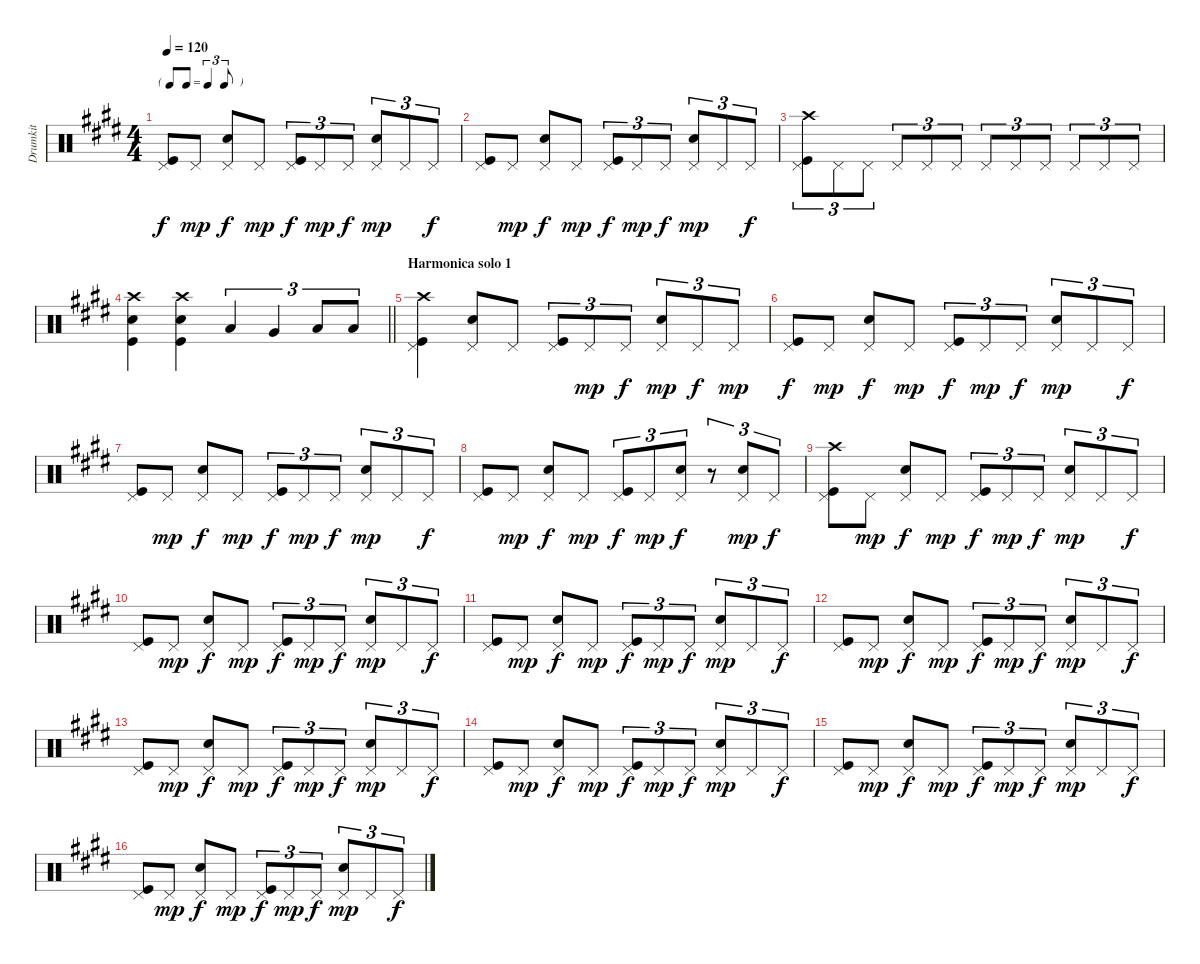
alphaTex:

\track ("Drumkit" "Drumkit") {instrument percussion}
\staff {score}
\articulation defaults
\ts (4 4)
\tf triplet8th
\tempo 120
\clef neutral
\ks e
("Pedal Hi-Hat (hit)" "Kick (hit)").8{dy f} "Pedal Hi-Hat (hit)".8{dy mp} ("Pedal Hi-Hat (hit)" "Snare (hit) 2").8{dy f} "Pedal Hi-Hat (hit)".8{dy mp} ("Pedal Hi-Hat (hit)" "Kick (hit)").8{tu (3 2) dy f} "Pedal Hi-Hat (hit)".8{tu (3 2) dy mp} "Pedal Hi-Hat (hit)".8{tu (3 2) dy f} ("Pedal Hi-Hat (hit)" "Snare (hit) 2").8{tu (3 2) dy mp} "Pedal Hi-Hat (hit)".8{tu (3 2)} "Pedal Hi-Hat (hit)".8{tu (3 2) dy f} |
("Pedal Hi-Hat (hit)" "Kick (hit)").8 "Pedal Hi-Hat (hit)".8{dy mp} ("Pedal Hi-Hat (hit)" "Snare (hit) 2").8{dy f} "Pedal Hi-Hat (hit)".8{dy mp} ("Pedal Hi-Hat (hit)" "Kick (hit)").8{tu (3 2) dy f} "Pedal Hi-Hat (hit)".8{tu (3 2) dy mp} "Pedal Hi-Hat (hit)".8{tu (3 2) dy f} ("Pedal Hi-Hat (hit)" "Snare (hit) 2").8{tu (3 2) dy mp} "Pedal Hi-Hat (hit)".8{tu (3 2)} "Pedal Hi-Hat (hit)".8{tu (3 2) dy f} |
("Crash high (hit)" "Pedal Hi-Hat (hit)" "Kick (hit)").8{tu (3 2)} "Pedal Hi-Hat (hit)".8{tu (3 2)} "Pedal Hi-Hat (hit)".8{tu (3 2)} "Pedal Hi-Hat (hit)".8{tu (3 2)} "Pedal Hi-Hat (hit)".8{tu (3 2)} "Pedal Hi-Hat (hit)".8{tu (3 2)} "Pedal Hi-Hat (hit)".8{tu (3 2)} "Pedal Hi-Hat (hit)".8{tu (3 2)} "Pedal Hi-Hat (hit)".8{tu (3 2)} "Pedal Hi-Hat (hit)".8{tu (3 2)} "Pedal Hi-Hat (hit)".8{tu (3 2)} "Pedal Hi-Hat (hit)".8{tu (3 2)} |
\barLineRight lightlight
("Crash high (hit)" "Snare (hit) 2" "Kick (hit)").4 ("Crash high (hit)" "Snare (hit) 2" "Kick (hit)").4 "Low Tom (hit)".4{tu (3 2)} "Very Low Tom (hit)".4{tu (3 2)} "Low Floor Tom (hit)".8{tu (3 2)} "Low Floor Tom (hit)".8{tu (3 2)} |
\section ("" "Harmonica solo 1")
("Crash high (hit)" "Pedal Hi-Hat (hit)" "Kick (hit)").4 ("Pedal Hi-Hat (hit)" "Snare (hit) 2").8 "Pedal Hi-Hat (hit)".8 ("Pedal Hi-Hat (hit)" "Kick (hit)").8{tu (3 2)} "Pedal Hi-Hat (hit)".8{tu (3 2) dy mp} "Pedal Hi-Hat (hit)".8{tu (3 2) dy f} ("Pedal Hi-Hat (hit)" "Snare (hit) 2").8{tu (3 2) dy mp} "Pedal Hi-Hat (hit)".8{tu (3 2) dy f} "Pedal Hi-Hat (hit)".8{tu (3 2) dy mp} |
("Pedal Hi-Hat (hit)" "Kick (hit)").8{dy f} "Pedal Hi-Hat (hit)".8{dy mp} ("Pedal Hi-Hat (hit)" "Snare (hit) 2").8{dy f} "Pedal Hi-Hat (hit)".8{dy mp} ("Pedal Hi-Hat (hit)" "Kick (hit)").8{tu (3 2) dy f} "Pedal Hi-Hat (hit)".8{tu (3 2) dy mp} "Pedal Hi-Hat (hit)".8{tu (3 2) dy f} ("Pedal Hi-Hat (hit)" "Snare (hit) 2").8{tu (3 2) dy mp} "Pedal Hi-Hat (hit)".8{tu (3 2)} "Pedal Hi-Hat (hit)".8{tu (3 2) dy f} |
("Pedal Hi-Hat (hit)" "Kick (hit)").8 "Pedal Hi-Hat (hit)".8{dy mp} ("Pedal Hi-Hat (hit)" "Snare (hit) 2").8{dy f} "Pedal Hi-Hat (hit)".8{dy mp} ("Pedal Hi-Hat (hit)" "Kick (hit)").8{tu (3 2) dy f} "Pedal Hi-Hat (hit)".8{tu (3 2) dy mp} "Pedal Hi-Hat (hit)".8{tu (3 2) dy f} ("Pedal Hi-Hat (hit)" "Snare (hit) 2").8{tu (3 2) dy mp} "Pedal Hi-Hat (hit)".8{tu (3 2)} "Pedal Hi-Hat (hit)".8{tu (3 2) dy f} |
("Pedal Hi-Hat (hit)" "Kick (hit)").8 "Pedal Hi-Hat (hit)".8{dy mp} ("Pedal Hi-Hat (hit)" "Snare (hit) 2").8{dy f} "Pedal Hi-Hat (hit)".8{dy mp} ("Pedal Hi-Hat (hit)" "Kick (hit)").8{tu (3 2) dy f} "Pedal Hi-Hat (hit)".8{tu (3 2) dy mp} ("Pedal Hi-Hat (hit)" "Snare (hit) 2").8{tu (3 2) dy f} r.8{tu (3 2)} ("Pedal Hi-Hat (hit)" "Snare (hit) 2").8{tu (3 2) dy mp} "Pedal Hi-Hat (hit)".8{tu (3 2) dy f} |
("Crash high (hit)" "Pedal Hi-Hat (hit)" "Kick (hit)").8 "Pedal Hi-Hat (hit)".8{dy mp} ("Pedal Hi-Hat (hit)" "Snare (hit) 2").8{dy f} "Pedal Hi-Hat (hit)".8{dy mp} ("Pedal Hi-Hat (hit)" "Kick (hit)").8{tu (3 2) dy f} "Pedal Hi-Hat (hit)".8{tu (3 2) dy mp} "Pedal Hi-Hat (hit)".8{tu (3 2) dy f} ("Pedal Hi-Hat (hit)" "Snare (hit) 2").8{tu (3 2) dy mp} "Pedal Hi-Hat (hit)".8{tu (3 2)} "Pedal Hi-Hat (hit)".8{tu (3 2) dy f} |
("Pedal Hi-Hat (hit)" "Kick (hit)").8 "Pedal Hi-Hat (hit)".8{dy mp} ("Pedal Hi-Hat (hit)" "Snare (hit) 2").8{dy f} "Pedal Hi-Hat (hit)".8{dy mp} ("Pedal Hi-Hat (hit)" "Kick (hit)").8{tu (3 2) dy f} "Pedal Hi-Hat (hit)".8{tu (3 2) dy mp} "Pedal Hi-Hat (hit)".8{tu (3 2) dy f} ("Pedal Hi-Hat (hit)" "Snare (hit) 2").8{tu (3 2) dy mp} "Pedal Hi-Hat (hit)".8{tu (3 2)} "Pedal Hi-Hat (hit)".8{tu (3 2) dy f} |
("Pedal Hi-Hat (hit)" "Kick (hit)").8 "Pedal Hi-Hat (hit)".8{dy mp} ("Pedal Hi-Hat (hit)" "Snare (hit) 2").8{dy f} "Pedal Hi-Hat (hit)".8{dy mp} ("Pedal Hi-Hat (hit)" "Kick (hit)").8{tu (3 2) dy f} "Pedal Hi-Hat (hit)".8{tu (3 2) dy mp} "Pedal Hi-Hat (hit)".8{tu (3 2) dy f} ("Pedal Hi-Hat (hit)" "Snare (hit) 2").8{tu (3 2) dy mp} "Pedal Hi-Hat (hit)".8{tu (3 2)} "Pedal Hi-Hat (hit)".8{tu (3 2) dy f} |
("Pedal Hi-Hat (hit)" "Kick (hit)").8 "Pedal Hi-Hat (hit)".8{dy mp} ("Pedal Hi-Hat (hit)" "Snare (hit) 2").8{dy f} "Pedal Hi-Hat (hit)".8{dy mp} ("Pedal Hi-Hat (hit)" "Kick (hit)").8{tu (3 2) dy f} "Pedal Hi-Hat (hit)".8{tu (3 2) dy mp} "Pedal Hi-Hat (hit)".8{tu (3 2) dy f} ("Pedal Hi-Hat (hit)" "Snare (hit) 2").8{tu (3 2) dy mp} "Pedal Hi-Hat (hit)".8{tu (3 2)} "Pedal Hi-Hat (hit)".8{tu (3 2) dy f} |
("Pedal Hi-Hat (hit)" "Kick (hit)").8 "Pedal Hi-Hat (hit)".8{dy mp} ("Pedal Hi-Hat (hit)" "Snare (hit) 2").8{dy f} "Pedal Hi-Hat (hit)".8{dy mp} ("Pedal Hi-Hat (hit)" "Kick (hit)").8{tu (3 2) dy f} "Pedal Hi-Hat (hit)".8{tu (3 2) dy mp} "Pedal Hi-Hat (hit)".8{tu (3 2) dy f} ("Pedal Hi-Hat (hit)" "Snare (hit) 2").8{tu (3 2) dy mp} "Pedal Hi-Hat (hit)".8{tu (3 2)} "Pedal Hi-Hat (hit)".8{tu (3 2) dy f} |
("Pedal Hi-Hat (hit)" "Kick (hit)").8 "Pedal Hi-Hat (hit)".8{dy mp} ("Pedal Hi-Hat (hit)" "Snare (hit) 2").8{dy f} "Pedal Hi-Hat (hit)".8{dy mp} ("Pedal Hi-Hat (hit)" "Kick (hit)").8{tu (3 2) dy f} "Pedal Hi-Hat (hit)".8{tu (3 2) dy mp} "Pedal Hi-Hat (hit)".8{tu (3 2) dy f} ("Pedal Hi-Hat (hit)" "Snare (hit) 2").8{tu (3 2) dy mp} "Pedal Hi-Hat (hit)".8{tu (3 2)} "Pedal Hi-Hat (hit)".8{tu (3 2) dy f} |
("Pedal Hi-Hat (hit)" "Kick (hit)").8 "Pedal Hi-Hat (hit)".8{dy mp} ("Pedal Hi-Hat (hit)" "Snare (hit) 2").8{dy f} "Pedal Hi-Hat (hit)".8{dy mp} ("Pedal Hi-Hat (hit)" "Kick (hit)").8{tu (3 2) dy f} "Pedal Hi-Hat (hit)".8{tu (3 2) dy mp} "Pedal Hi-Hat (hit)".8{tu (3 2) dy f} ("Pedal Hi-Hat (hit)" "Snare (hit) 2").8{tu (3 2) dy mp} "Pedal Hi-Hat (hit)".8{tu (3 2)} "Pedal Hi-Hat (hit)".8{tu (3 2) dy f} |
("Pedal Hi-Hat (hit)" "Kick (hit)").8 "Pedal Hi-Hat (hit)".8{dy mp} ("Pedal Hi-Hat (hit)" "Snare (hit) 2").8{dy f} "Pedal Hi-Hat (hit)".8{dy mp} ("Pedal Hi-Hat (hit)" "Kick (hit)").8{tu (3 2) dy f} "Pedal Hi-Hat (hit)".8{tu (3 2) dy mp} "Pedal Hi-Hat (hit)".8{tu (3 2) dy f} ("Pedal Hi-Hat (hit)" "Snare (hit) 2").8{tu (3 2) dy mp} "Pedal Hi-Hat (hit)".8{tu (3 2)} "Pedal Hi-Hat (hit)".8{tu (3 2) dy f}
